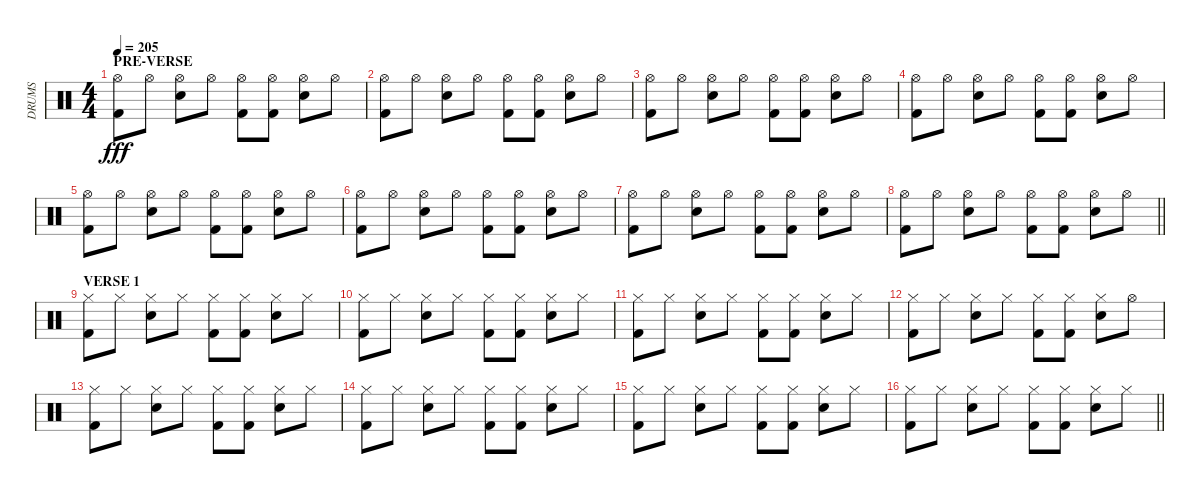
\track ("DRUMS" "DRUMS") {instrument percussion}
\staff {score}
\articulation defaults
\ts (4 4)
\section ("" "PRE-VERSE")
\tempo 205
\clef neutral
\ks c
("Hi-Hat (open)" "Kick (hit) 2").8{dy fff} "Hi-Hat (open)".8 ("Hi-Hat (open)" "Electric Snare (hit)").8 "Hi-Hat (open)".8 ("Hi-Hat (open)" "Kick (hit) 2").8 ("Hi-Hat (open)" "Kick (hit) 2").8 ("Hi-Hat (open)" "Electric Snare (hit)").8 "Hi-Hat (open)".8 |
("Hi-Hat (open)" "Kick (hit) 2").8 "Hi-Hat (open)".8 ("Hi-Hat (open)" "Electric Snare (hit)").8 "Hi-Hat (open)".8 ("Hi-Hat (open)" "Kick (hit) 2").8 ("Hi-Hat (open)" "Kick (hit) 2").8 ("Hi-Hat (open)" "Electric Snare (hit)").8 "Hi-Hat (open)".8 |
("Hi-Hat (open)" "Kick (hit) 2").8 "Hi-Hat (open)".8 ("Hi-Hat (open)" "Electric Snare (hit)").8 "Hi-Hat (open)".8 ("Hi-Hat (open)" "Kick (hit) 2").8 ("Hi-Hat (open)" "Kick (hit) 2").8 ("Hi-Hat (open)" "Electric Snare (hit)").8 "Hi-Hat (open)".8 |
("Hi-Hat (open)" "Kick (hit) 2").8 "Hi-Hat (open)".8 ("Hi-Hat (open)" "Electric Snare (hit)").8 "Hi-Hat (open)".8 ("Hi-Hat (open)" "Kick (hit) 2").8 ("Hi-Hat (open)" "Kick (hit) 2").8 ("Hi-Hat (open)" "Electric Snare (hit)").8 "Hi-Hat (open)".8 |
("Hi-Hat (open)" "Kick (hit) 2").8 "Hi-Hat (open)".8 ("Hi-Hat (open)" "Electric Snare (hit)").8 "Hi-Hat (open)".8 ("Hi-Hat (open)" "Kick (hit) 2").8 ("Hi-Hat (open)" "Kick (hit) 2").8 ("Hi-Hat (open)" "Electric Snare (hit)").8 "Hi-Hat (open)".8 |
("Hi-Hat (open)" "Kick (hit) 2").8 "Hi-Hat (open)".8 ("Hi-Hat (open)" "Electric Snare (hit)").8 "Hi-Hat (open)".8 ("Hi-Hat (open)" "Kick (hit) 2").8 ("Hi-Hat (open)" "Kick (hit) 2").8 ("Hi-Hat (open)" "Electric Snare (hit)").8 "Hi-Hat (open)".8 |
("Hi-Hat (open)" "Kick (hit) 2").8 "Hi-Hat (open)".8 ("Hi-Hat (open)" "Electric Snare (hit)").8 "Hi-Hat (open)".8 ("Hi-Hat (open)" "Kick (hit) 2").8 ("Hi-Hat (open)" "Kick (hit) 2").8 ("Hi-Hat (open)" "Electric Snare (hit)").8 "Hi-Hat (open)".8 |
\barLineRight lightlight
("Hi-Hat (open)" "Kick (hit) 2").8 "Hi-Hat (open)".8 ("Hi-Hat (open)" "Electric Snare (hit)").8 "Hi-Hat (open)".8 ("Hi-Hat (open)" "Kick (hit) 2").8 ("Hi-Hat (open)" "Kick (hit) 2").8 ("Hi-Hat (open)" "Electric Snare (hit)").8 "Hi-Hat (open)".8 |
\section ("" "VERSE 1")
("Hi-Hat (closed)" "Kick (hit) 2").8 "Hi-Hat (closed)".8 ("Hi-Hat (closed)" "Electric Snare (hit)").8 "Hi-Hat (closed)".8 ("Hi-Hat (closed)" "Kick (hit) 2").8 ("Hi-Hat (closed)" "Kick (hit) 2").8 ("Hi-Hat (closed)" "Electric Snare (hit)").8 "Hi-Hat (closed)".8 |
("Hi-Hat (closed)" "Kick (hit) 2").8 "Hi-Hat (closed)".8 ("Hi-Hat (closed)" "Electric Snare (hit)").8 "Hi-Hat (closed)".8 ("Hi-Hat (closed)" "Kick (hit) 2").8 ("Hi-Hat (closed)" "Kick (hit) 2").8 ("Hi-Hat (closed)" "Electric Snare (hit)").8 "Hi-Hat (closed)".8 |
("Hi-Hat (closed)" "Kick (hit) 2").8 "Hi-Hat (closed)".8 ("Hi-Hat (closed)" "Electric Snare (hit)").8 "Hi-Hat (closed)".8 ("Hi-Hat (closed)" "Kick (hit) 2").8 ("Hi-Hat (closed)" "Kick (hit) 2").8 ("Hi-Hat (closed)" "Electric Snare (hit)").8 "Hi-Hat (closed)".8 |
("Hi-Hat (closed)" "Kick (hit) 2").8 "Hi-Hat (closed)".8 ("Hi-Hat (closed)" "Electric Snare (hit)").8 "Hi-Hat (closed)".8 ("Hi-Hat (closed)" "Kick (hit) 2").8 ("Hi-Hat (closed)" "Kick (hit) 2").8 ("Hi-Hat (closed)" "Electric Snare (hit)").8 "Hi-Hat (open)".8 |
("Hi-Hat (closed)" "Kick (hit) 2").8 "Hi-Hat (closed)".8 ("Hi-Hat (closed)" "Electric Snare (hit)").8 "Hi-Hat (closed)".8 ("Hi-Hat (closed)" "Kick (hit) 2").8 ("Hi-Hat (closed)" "Kick (hit) 2").8 ("Hi-Hat (closed)" "Electric Snare (hit)").8 "Hi-Hat (closed)".8 |
("Hi-Hat (closed)" "Kick (hit) 2").8 "Hi-Hat (closed)".8 ("Hi-Hat (closed)" "Electric Snare (hit)").8 "Hi-Hat (closed)".8 ("Hi-Hat (closed)" "Kick (hit) 2").8 ("Hi-Hat (closed)" "Kick (hit) 2").8 ("Hi-Hat (closed)" "Electric Snare (hit)").8 "Hi-Hat (closed)".8 |
("Hi-Hat (closed)" "Kick (hit) 2").8 "Hi-Hat (closed)".8 ("Hi-Hat (closed)" "Electric Snare (hit)").8 "Hi-Hat (closed)".8 ("Hi-Hat (closed)" "Kick (hit) 2").8 ("Hi-Hat (closed)" "Kick (hit) 2").8 ("Hi-Hat (closed)" "Electric Snare (hit)").8 "Hi-Hat (closed)".8 |
\barLineRight lightlight
("Hi-Hat (closed)" "Kick (hit) 2").8 "Hi-Hat (closed)".8 ("Hi-Hat (closed)" "Electric Snare (hit)").8 "Hi-Hat (closed)".8 ("Hi-Hat (closed)" "Kick (hit) 2").8 ("Hi-Hat (closed)" "Kick (hit) 2").8 ("Hi-Hat (closed)" "Electric Snare (hit)").8 "Hi-Hat (closed)".8
